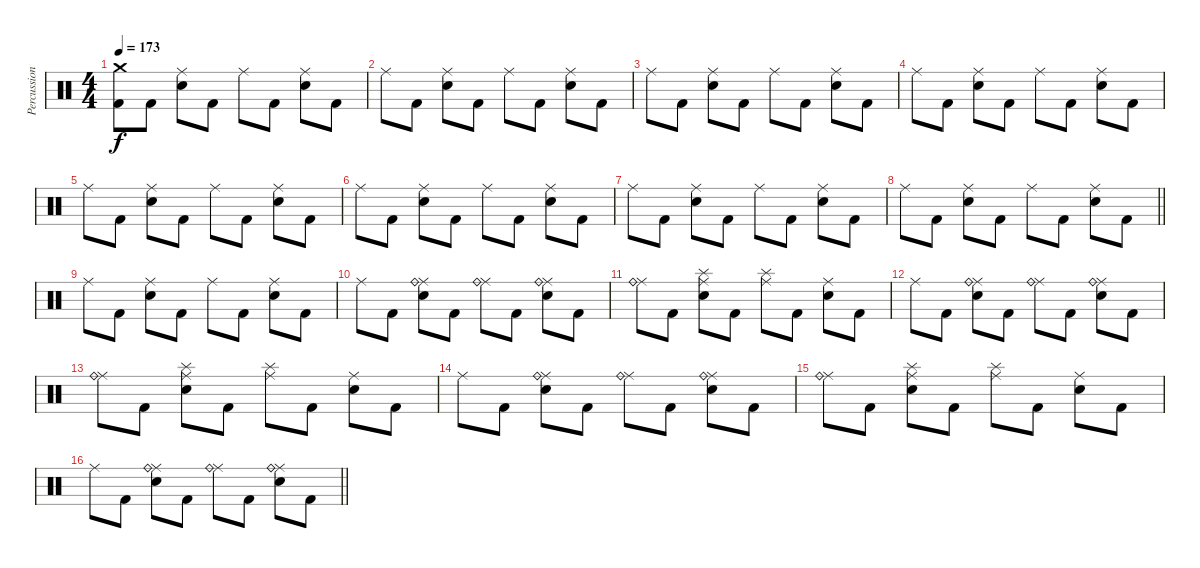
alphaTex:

\track ("Percussion" "Percussion") {instrument percussion}
\staff {score}
\articulation defaults
\ts (4 4)
\section ("" "")
\tempo 173
\clef neutral
\ks c
("Crash medium (hit)" "Kick (hit) 2").8{dy f} "Kick (hit) 2".8 ("Ride (middle)" "Electric Snare (hit)").8 "Kick (hit) 2".8 "Ride (middle)".8 "Kick (hit) 2".8 ("Ride (middle)" "Electric Snare (hit)").8 "Kick (hit) 2".8 |
"Ride (middle)".8 "Kick (hit) 2".8 ("Ride (middle)" "Electric Snare (hit)").8 "Kick (hit) 2".8 "Ride (middle)".8 "Kick (hit) 2".8 ("Ride (middle)" "Electric Snare (hit)").8 "Kick (hit) 2".8 |
"Ride (middle)".8 "Kick (hit) 2".8 ("Ride (middle)" "Electric Snare (hit)").8 "Kick (hit) 2".8 "Ride (middle)".8 "Kick (hit) 2".8 ("Ride (middle)" "Electric Snare (hit)").8 "Kick (hit) 2".8 |
"Ride (middle)".8 "Kick (hit) 2".8 ("Ride (middle)" "Electric Snare (hit)").8 "Kick (hit) 2".8 "Ride (middle)".8 "Kick (hit) 2".8 ("Ride (middle)" "Electric Snare (hit)").8 "Kick (hit) 2".8 |
"Ride (middle)".8 "Kick (hit) 2".8 ("Ride (middle)" "Electric Snare (hit)").8 "Kick (hit) 2".8 "Ride (middle)".8 "Kick (hit) 2".8 ("Ride (middle)" "Electric Snare (hit)").8 "Kick (hit) 2".8 |
"Ride (middle)".8 "Kick (hit) 2".8 ("Ride (middle)" "Electric Snare (hit)").8 "Kick (hit) 2".8 "Ride (middle)".8 "Kick (hit) 2".8 ("Ride (middle)" "Electric Snare (hit)").8 "Kick (hit) 2".8 |
"Ride (middle)".8 "Kick (hit) 2".8 ("Ride (middle)" "Electric Snare (hit)").8 "Kick (hit) 2".8 "Ride (middle)".8 "Kick (hit) 2".8 ("Ride (middle)" "Electric Snare (hit)").8 "Kick (hit) 2".8 |
\barLineRight lightlight "Ride (middle)".8 "Kick (hit) 2".8
("Ride (middle)" "Electric Snare (hit)").8 "Kick (hit) 2".8 "Ride (middle)".8 "Kick (hit) 2".8 ("Ride (middle)" "Electric Snare (hit)").8 "Kick (hit) 2".8 |
"Ride (middle)".8 "Kick (hit) 2".8 ("Ride (middle)" "Electric Snare (hit)").8 "Kick (hit) 2".8 "Ride (middle)".8 "Kick (hit) 2".8 ("Ride (middle)" "Electric Snare (hit)").8 "Kick (hit) 2".8 |
"Ride (middle)".8 "Kick (hit) 2".8 ("Ride (middle)" "Ride (bell)" "Electric Snare (hit)").8 "Kick (hit) 2".8 ("Ride (middle)" "Ride (bell)").8 "Kick (hit) 2".8 ("Ride (middle)" "Ride (bell)" "Electric Snare (hit)").8 "Kick (hit) 2".8 |
("Ride (middle)" "Ride (bell)").8 "Kick (hit) 2".8 ("Ride (middle)" "Splash (hit)" "Electric Snare (hit)").8 "Kick (hit) 2".8 ("Ride (middle)" "Splash (hit)").8 "Kick (hit) 2".8 ("Ride (middle)" "Electric Snare (hit)").8 "Kick (hit) 2".8 |
"Ride (middle)".8 "Kick (hit) 2".8 ("Ride (middle)" "Ride (bell)" "Electric Snare (hit)").8 "Kick (hit) 2".8 ("Ride (middle)" "Ride (bell)").8 "Kick (hit) 2".8 ("Ride (middle)" "Ride (bell)" "Electric Snare (hit)").8 "Kick (hit) 2".8 |
("Ride (middle)" "Ride (bell)").8 "Kick (hit) 2".8 ("Ride (middle)" "Splash (hit)" "Electric Snare (hit)").8 "Kick (hit) 2".8 ("Ride (middle)" "Splash (hit)").8 "Kick (hit) 2".8 ("Ride (middle)" "Electric Snare (hit)").8 "Kick (hit) 2".8 |
"Ride (middle)".8 "Kick (hit) 2".8 ("Ride (middle)" "Ride (bell)" "Electric Snare (hit)").8 "Kick (hit) 2".8 ("Ride (middle)" "Ride (bell)").8 "Kick (hit) 2".8 ("Ride (middle)" "Ride (bell)" "Electric Snare (hit)").8 "Kick (hit) 2".8 |
("Ride (middle)" "Ride (bell)").8 "Kick (hit) 2".8 ("Ride (middle)" "Splash (hit)" "Electric Snare (hit)").8 "Kick (hit) 2".8 ("Ride (middle)" "Splash (hit)").8 "Kick (hit) 2".8 ("Ride (middle)" "Electric Snare (hit)").8 "Kick (hit) 2".8 |
\barLineRight lightlight "Ride (middle)".8 "Kick (hit) 2".8
("Ride (middle)" "Ride (bell)" "Electric Snare (hit)").8 "Kick (hit) 2".8 ("Ride (middle)" "Ride (bell)").8 "Kick (hit) 2".8 ("Ride (middle)" "Ride (bell)" "Electric Snare (hit)").8 "Kick (hit) 2".8
